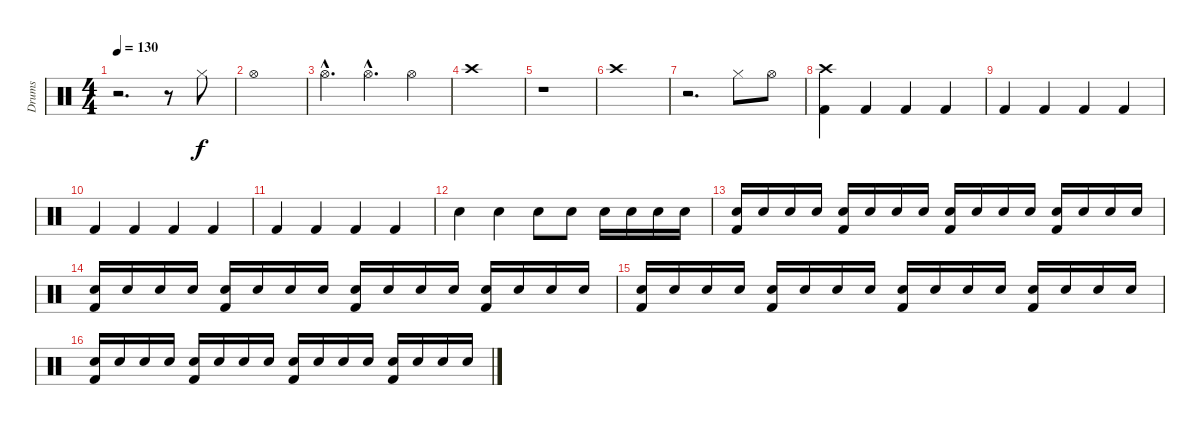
\track ("Drums" "Drums") {instrument percussion}
\staff {score}
\articulation defaults
\ts (4 4)
\tempo 130
\clef neutral
\ks c
r.2{d dy f} r.8 "Hi-Hat (closed)".8 |
"Hi-Hat (open)".1 |
"Hi-Hat (open)"{hac}.4{d} "Hi-Hat (open)"{hac}.4{d} "Hi-Hat (open)".4 |
"Crash high (hit)".1 |
r.1 |
"Crash high (hit)".1 |
r.2{d} "Hi-Hat (closed)".8 "Hi-Hat (open)".8 |
("Crash high (hit)" "Kick (hit) 2").4 "Kick (hit) 2".4 "Kick (hit) 2".4 "Kick (hit) 2".4 |
"Kick (hit) 2".4 "Kick (hit) 2".4 "Kick (hit) 2".4 "Kick (hit) 2".4 |
"Kick (hit) 2".4 "Kick (hit) 2".4 "Kick (hit) 2".4 "Kick (hit) 2".4 |
"Kick (hit) 2".4 "Kick (hit) 2".4 "Kick (hit) 2".4 "Kick (hit) 2".4 |
"Snare (hit) 2".4 "Snare (hit) 2".4 "Snare (hit) 2".8 "Snare (hit) 2".8 "Snare (hit) 2".16 "Snare (hit) 2".16 "Snare (hit) 2".16 "Snare (hit) 2".16 |
("Snare (hit) 2" "Kick (hit) 2").16 "Snare (hit) 2".16 "Snare (hit) 2".16 "Snare (hit) 2".16 ("Snare (hit) 2" "Kick (hit) 2").16 "Snare (hit) 2".16 "Snare (hit) 2".16 "Snare (hit) 2".16 ("Snare (hit) 2" "Kick (hit) 2").16 "Snare (hit) 2".16 "Snare (hit) 2".16 "Snare (hit) 2".16 ("Snare (hit) 2" "Kick (hit) 2").16 "Snare (hit) 2".16 "Snare (hit) 2".16 "Snare (hit) 2".16 |
("Snare (hit) 2" "Kick (hit) 2").16 "Snare (hit) 2".16 "Snare (hit) 2".16 "Snare (hit) 2".16 ("Snare (hit) 2" "Kick (hit) 2").16 "Snare (hit) 2".16 "Snare (hit) 2".16 "Snare (hit) 2".16 ("Snare (hit) 2" "Kick (hit) 2").16 "Snare (hit) 2".16 "Snare (hit) 2".16 "Snare (hit) 2".16 ("Snare (hit) 2" "Kick (hit) 2").16 "Snare (hit) 2".16 "Snare (hit) 2".16 "Snare (hit) 2".16 |
("Snare (hit) 2" "Kick (hit) 2").16 "Snare (hit) 2".16 "Snare (hit) 2".16 "Snare (hit) 2".16 ("Snare (hit) 2" "Kick (hit) 2").16 "Snare (hit) 2".16 "Snare (hit) 2".16 "Snare (hit) 2".16 ("Snare (hit) 2" "Kick (hit) 2").16 "Snare (hit) 2".16 "Snare (hit) 2".16 "Snare (hit) 2".16 ("Snare (hit) 2" "Kick (hit) 2").16 "Snare (hit) 2".16 "Snare (hit) 2".16 "Snare (hit) 2".16 |
("Snare (hit) 2" "Kick (hit) 2").16 "Snare (hit) 2".16 "Snare (hit) 2".16 "Snare (hit) 2".16 ("Snare (hit) 2" "Kick (hit) 2").16 "Snare (hit) 2".16 "Snare (hit) 2".16 "Snare (hit) 2".16 ("Snare (hit) 2" "Kick (hit) 2").16 "Snare (hit) 2".16 "Snare (hit) 2".16 "Snare (hit) 2".16 ("Snare (hit) 2" "Kick (hit) 2").16 "Snare (hit) 2".16 "Snare (hit) 2".16 "Snare (hit) 2".16
